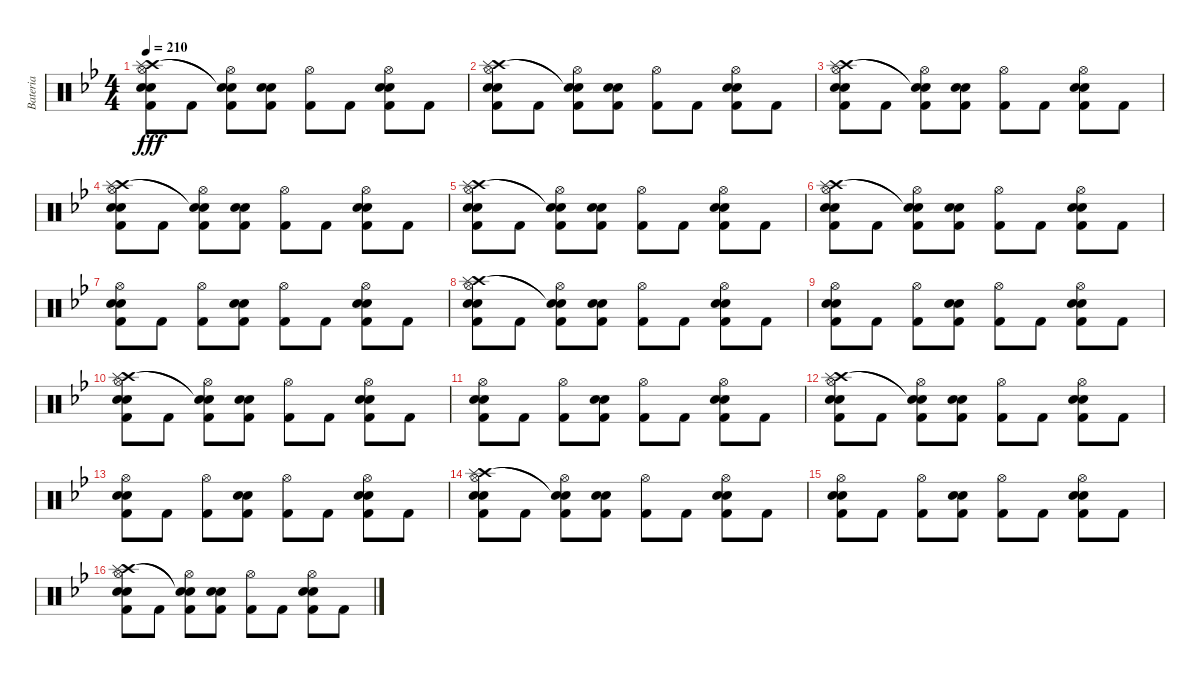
\track ("Bateria" "Bateria") {instrument percussion}
\staff {score}
\articulation defaults
\ts (4 4)
\tempo 210
\clef neutral
\ks gminor
("Hi-Hat (open)" "Crash high (hit)" "Splash (hit)" "Snare (hit) 2" "Kick (hit) 2" "Electric Snare (hit)").8{dy fff} "Kick (hit) 2".8 ("Hi-Hat (open)" "Snare (hit)"{t} "Snare (hit)"{t} "Kick (hit) 2").8 ("Snare (hit) 2" "Kick (hit) 2" "Electric Snare (hit)").8 ("Hi-Hat (open)" "Kick (hit) 2").8 "Kick (hit) 2".8 ("Hi-Hat (open)" "Snare (hit) 2" "Kick (hit) 2" "Electric Snare (hit)").8 "Kick (hit) 2".8 |
("Hi-Hat (open)" "Crash high (hit)" "Splash (hit)" "Snare (hit) 2" "Kick (hit) 2" "Electric Snare (hit)").8 "Kick (hit) 2".8 ("Hi-Hat (open)" "Snare (hit)"{t} "Snare (hit)"{t} "Kick (hit) 2").8 ("Snare (hit) 2" "Kick (hit) 2" "Electric Snare (hit)").8 ("Hi-Hat (open)" "Kick (hit) 2").8 "Kick (hit) 2".8 ("Hi-Hat (open)" "Snare (hit) 2" "Kick (hit) 2" "Electric Snare (hit)").8 "Kick (hit) 2".8 |
("Hi-Hat (open)" "Crash high (hit)" "Splash (hit)" "Snare (hit) 2" "Kick (hit) 2" "Electric Snare (hit)").8 "Kick (hit) 2".8 ("Hi-Hat (open)" "Snare (hit)"{t} "Snare (hit)"{t} "Kick (hit) 2").8 ("Snare (hit) 2" "Kick (hit) 2" "Electric Snare (hit)").8 ("Hi-Hat (open)" "Kick (hit) 2").8 "Kick (hit) 2".8 ("Hi-Hat (open)" "Snare (hit) 2" "Kick (hit) 2" "Electric Snare (hit)").8 "Kick (hit) 2".8 |
("Hi-Hat (open)" "Crash high (hit)" "Splash (hit)" "Snare (hit) 2" "Kick (hit) 2" "Electric Snare (hit)").8 "Kick (hit) 2".8 ("Hi-Hat (open)" "Snare (hit)"{t} "Snare (hit)"{t} "Kick (hit) 2").8 ("Snare (hit) 2" "Kick (hit) 2" "Electric Snare (hit)").8 ("Hi-Hat (open)" "Kick (hit) 2").8 "Kick (hit) 2".8 ("Hi-Hat (open)" "Snare (hit) 2" "Kick (hit) 2" "Electric Snare (hit)").8 "Kick (hit) 2".8 |
("Hi-Hat (open)" "Crash high (hit)" "Splash (hit)" "Snare (hit) 2" "Kick (hit) 2" "Electric Snare (hit)").8 "Kick (hit) 2".8 ("Hi-Hat (open)" "Snare (hit)"{t} "Snare (hit)"{t} "Kick (hit) 2").8 ("Snare (hit) 2" "Kick (hit) 2" "Electric Snare (hit)").8 ("Hi-Hat (open)" "Kick (hit) 2").8 "Kick (hit) 2".8 ("Hi-Hat (open)" "Snare (hit) 2" "Kick (hit) 2" "Electric Snare (hit)").8 "Kick (hit) 2".8 |
("Hi-Hat (open)" "Crash high (hit)" "Splash (hit)" "Snare (hit) 2" "Electric Snare (hit)" "Kick (hit) 2").8 "Kick (hit) 2".8 ("Hi-Hat (open)" "Snare (hit)"{t} "Snare (hit)"{t} "Kick (hit) 2").8 ("Snare (hit) 2" "Electric Snare (hit)" "Kick (hit) 2").8 ("Hi-Hat (open)" "Kick (hit) 2").8 "Kick (hit) 2".8 ("Hi-Hat (open)" "Snare (hit) 2" "Electric Snare (hit)" "Kick (hit) 2").8 "Kick (hit) 2".8 |
("Hi-Hat (open)" "Snare (hit) 2" "Kick (hit) 2" "Electric Snare (hit)").8 "Kick (hit) 2".8 ("Hi-Hat (open)" "Kick (hit) 2").8 ("Snare (hit) 2" "Kick (hit) 2" "Electric Snare (hit)").8 ("Hi-Hat (open)" "Kick (hit) 2").8 "Kick (hit) 2".8 ("Hi-Hat (open)" "Snare (hit) 2" "Kick (hit) 2" "Electric Snare (hit)").8 "Kick (hit) 2".8 |
("Hi-Hat (open)" "Crash high (hit)" "Splash (hit)" "Snare (hit) 2" "Kick (hit) 2" "Electric Snare (hit)").8 "Kick (hit) 2".8 ("Hi-Hat (open)" "Snare (hit)"{t} "Snare (hit)"{t} "Kick (hit) 2").8 ("Snare (hit) 2" "Kick (hit) 2" "Electric Snare (hit)").8 ("Hi-Hat (open)" "Kick (hit) 2").8 "Kick (hit) 2".8 ("Hi-Hat (open)" "Snare (hit) 2" "Kick (hit) 2" "Electric Snare (hit)").8 "Kick (hit) 2".8 |
("Hi-Hat (open)" "Snare (hit) 2" "Kick (hit) 2" "Electric Snare (hit)").8 "Kick (hit) 2".8 ("Hi-Hat (open)" "Kick (hit) 2").8 ("Snare (hit) 2" "Kick (hit) 2" "Electric Snare (hit)").8 ("Hi-Hat (open)" "Kick (hit) 2").8 "Kick (hit) 2".8 ("Hi-Hat (open)" "Snare (hit) 2" "Kick (hit) 2" "Electric Snare (hit)").8 "Kick (hit) 2".8 |
("Hi-Hat (open)" "Crash high (hit)" "Splash (hit)" "Snare (hit) 2" "Kick (hit) 2" "Electric Snare (hit)").8 "Kick (hit) 2".8 ("Hi-Hat (open)" "Snare (hit)"{t} "Snare (hit)"{t} "Kick (hit) 2").8 ("Snare (hit) 2" "Kick (hit) 2" "Electric Snare (hit)").8 ("Hi-Hat (open)" "Kick (hit) 2").8 "Kick (hit) 2".8 ("Hi-Hat (open)" "Snare (hit) 2" "Kick (hit) 2" "Electric Snare (hit)").8 "Kick (hit) 2".8 |
("Hi-Hat (open)" "Snare (hit) 2" "Kick (hit) 2" "Electric Snare (hit)").8 "Kick (hit) 2".8 ("Hi-Hat (open)" "Kick (hit) 2").8 ("Snare (hit) 2" "Kick (hit) 2" "Electric Snare (hit)").8 ("Hi-Hat (open)" "Kick (hit) 2").8 "Kick (hit) 2".8 ("Hi-Hat (open)" "Snare (hit) 2" "Kick (hit) 2" "Electric Snare (hit)").8 "Kick (hit) 2".8 |
("Hi-Hat (open)" "Crash high (hit)" "Splash (hit)" "Snare (hit) 2" "Kick (hit) 2" "Electric Snare (hit)").8 "Kick (hit) 2".8 ("Hi-Hat (open)" "Snare (hit)"{t} "Snare (hit)"{t} "Kick (hit) 2").8 ("Snare (hit) 2" "Kick (hit) 2" "Electric Snare (hit)").8 ("Hi-Hat (open)" "Kick (hit) 2").8 "Kick (hit) 2".8 ("Hi-Hat (open)" "Snare (hit) 2" "Kick (hit) 2" "Electric Snare (hit)").8 "Kick (hit) 2".8 |
("Hi-Hat (open)" "Snare (hit) 2" "Kick (hit) 2" "Electric Snare (hit)").8 "Kick (hit) 2".8 ("Hi-Hat (open)" "Kick (hit) 2").8 ("Snare (hit) 2" "Kick (hit) 2" "Electric Snare (hit)").8 ("Hi-Hat (open)" "Kick (hit) 2").8 "Kick (hit) 2".8 ("Hi-Hat (open)" "Snare (hit) 2" "Kick (hit) 2" "Electric Snare (hit)").8 "Kick (hit) 2".8 |
("Hi-Hat (open)" "Crash high (hit)" "Splash (hit)" "Snare (hit) 2" "Kick (hit) 2" "Electric Snare (hit)").8 "Kick (hit) 2".8 ("Hi-Hat (open)" "Snare (hit)"{t} "Snare (hit)"{t} "Kick (hit) 2").8 ("Snare (hit) 2" "Kick (hit) 2" "Electric Snare (hit)").8 ("Hi-Hat (open)" "Kick (hit) 2").8 "Kick (hit) 2".8 ("Hi-Hat (open)" "Snare (hit) 2" "Kick (hit) 2" "Electric Snare (hit)").8 "Kick (hit) 2".8 |
("Hi-Hat (open)" "Snare (hit) 2" "Kick (hit) 2" "Electric Snare (hit)").8 "Kick (hit) 2".8 ("Hi-Hat (open)" "Kick (hit) 2").8 ("Snare (hit) 2" "Kick (hit) 2" "Electric Snare (hit)").8 ("Hi-Hat (open)" "Kick (hit) 2").8 "Kick (hit) 2".8 ("Hi-Hat (open)" "Snare (hit) 2" "Kick (hit) 2" "Electric Snare (hit)").8 "Kick (hit) 2".8 |
("Hi-Hat (open)" "Crash high (hit)" "Splash (hit)" "Snare (hit) 2" "Kick (hit) 2" "Electric Snare (hit)").8 "Kick (hit) 2".8 ("Hi-Hat (open)" "Snare (hit)"{t} "Snare (hit)"{t} "Kick (hit) 2").8 ("Snare (hit) 2" "Kick (hit) 2" "Electric Snare (hit)").8 ("Hi-Hat (open)" "Kick (hit) 2").8 "Kick (hit) 2".8 ("Hi-Hat (open)" "Snare (hit) 2" "Kick (hit) 2" "Electric Snare (hit)").8 "Kick (hit) 2".8
